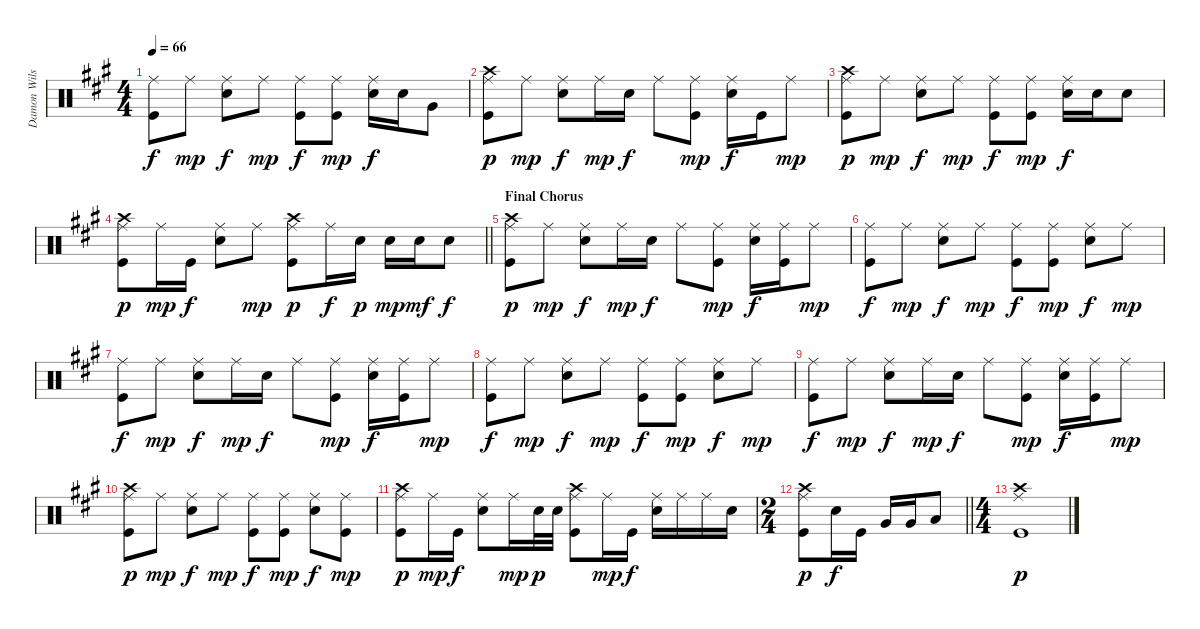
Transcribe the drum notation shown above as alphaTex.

\track ("Damon Wilson" "Damon Wils") {instrument percussion}
\staff {score}
\articulation defaults
\ts (4 4)
\tempo 66
\clef neutral
\ks f#minor
("Ride (middle)" "Kick (hit)").8{dy f} "Ride (middle)".8{dy mp} ("Ride (middle)" "Electric Snare (hit)").8{dy f} "Ride (middle)".8{dy mp} ("Ride (middle)" "Kick (hit)").8{dy f} ("Ride (middle)" "Kick (hit)").8{dy mp} ("Ride (middle)" "Electric Snare (hit)").16{dy f} "Electric Snare (hit)".16 "Very Low Tom (hit)".8 |
("Ride (middle)" "Crash high (hit)" "Kick (hit)").8{dy p} "Ride (middle)".8{dy mp} ("Ride (middle)" "Electric Snare (hit)").8{dy f} "Ride (middle)".16{dy mp} "Electric Snare (hit)".16{dy f} "Ride (middle)".8 ("Ride (middle)" "Kick (hit)").8{dy mp} ("Ride (middle)" "Electric Snare (hit)").16{dy f} "Kick (hit)".16 "Ride (middle)".8{dy mp} |
("Ride (middle)" "Crash high (hit)" "Kick (hit)").8{dy p} "Ride (middle)".8{dy mp} ("Ride (middle)" "Electric Snare (hit)").8{dy f} "Ride (middle)".8{dy mp} ("Ride (middle)" "Kick (hit)").8{dy f} ("Ride (middle)" "Kick (hit)").8{dy mp} ("Ride (middle)" "Electric Snare (hit)").16{dy f} "Electric Snare (hit)".16 "Electric Snare (hit)".8 |
\barLineRight lightlight
("Ride (middle)" "Crash high (hit)" "Kick (hit)").8{dy p} "Ride (middle)".16{dy mp} "Kick (hit)".16{dy f} ("Ride (middle)" "Electric Snare (hit)").8 "Ride (middle)".8{dy mp} ("Ride (middle)" "Crash high (hit)" "Kick (hit)").8{dy p} "Ride (middle)".16{dy f} "Electric Snare (hit)".16{dy p} "Electric Snare (hit)".16{dy mp} "Electric Snare (hit)".16{dy mf} "Electric Snare (hit)".8{dy f} |
\section ("" "Final Chorus")
("Ride (middle)" "Crash high (hit)" "Kick (hit)").8{dy p} "Ride (middle)".8{dy mp} ("Ride (middle)" "Electric Snare (hit)").8{dy f} "Ride (middle)".16{dy mp} "Electric Snare (hit)".16{dy f} "Ride (middle)".8 ("Ride (middle)" "Kick (hit)").8{dy mp} ("Ride (middle)" "Electric Snare (hit)").16{dy f} ("Ride (middle)" "Kick (hit)").16 "Ride (middle)".8{dy mp} |
("Ride (middle)" "Kick (hit)").8{dy f} "Ride (middle)".8{dy mp} ("Ride (middle)" "Electric Snare (hit)").8{dy f} "Ride (middle)".8{dy mp} ("Ride (middle)" "Kick (hit)").8{dy f} ("Ride (middle)" "Kick (hit)").8{dy mp} ("Ride (middle)" "Electric Snare (hit)").8{dy f} "Ride (middle)".8{dy mp} |
("Ride (middle)" "Kick (hit)").8{dy f} "Ride (middle)".8{dy mp} ("Ride (middle)" "Electric Snare (hit)").8{dy f} "Ride (middle)".16{dy mp} "Electric Snare (hit)".16{dy f} "Ride (middle)".8 ("Ride (middle)" "Kick (hit)").8{dy mp} ("Ride (middle)" "Electric Snare (hit)").16{dy f} ("Ride (middle)" "Kick (hit)").16 "Ride (middle)".8{dy mp} |
("Ride (middle)" "Kick (hit)").8{dy f} "Ride (middle)".8{dy mp} ("Ride (middle)" "Electric Snare (hit)").8{dy f} "Ride (middle)".8{dy mp} ("Ride (middle)" "Kick (hit)").8{dy f} ("Ride (middle)" "Kick (hit)").8{dy mp} ("Ride (middle)" "Electric Snare (hit)").8{dy f} "Ride (middle)".8{dy mp} |
("Ride (middle)" "Kick (hit)").8{dy f} "Ride (middle)".8{dy mp} ("Ride (middle)" "Electric Snare (hit)").8{dy f} "Ride (middle)".16{dy mp} "Electric Snare (hit)".16{dy f} "Ride (middle)".8 ("Ride (middle)" "Kick (hit)").8{dy mp} ("Ride (middle)" "Electric Snare (hit)").16{dy f} ("Ride (middle)" "Kick (hit)").16 "Ride (middle)".8{dy mp} |
("Ride (middle)" "Crash high (hit)" "Kick (hit)").8{dy p} "Ride (middle)".8{dy mp} ("Ride (middle)" "Electric Snare (hit)").8{dy f} "Ride (middle)".8{dy mp} ("Ride (middle)" "Kick (hit)").8{dy f} ("Ride (middle)" "Kick (hit)").8{dy mp} ("Ride (middle)" "Electric Snare (hit)").8{dy f} ("Ride (middle)" "Kick (hit)").8{dy mp} |
("Ride (middle)" "Crash high (hit)" "Kick (hit)").8{dy p} "Ride (middle)".16{dy mp} "Kick (hit)".16{dy f} ("Ride (middle)" "Electric Snare (hit)").8 "Ride (middle)".16{dy mp} "Electric Snare (hit)".32{dy p} "Electric Snare (hit)".32 ("Ride (middle)" "Crash high (hit)" "Kick (hit)").8 "Ride (middle)".16{dy mp} "Kick (hit)".16{dy f} ("Ride (middle)" "Electric Snare (hit)").16 "Ride (middle)".16 "Ride (middle)".16 "Electric Snare (hit)".16 |
\ts (2 4)
\barLineRight lightlight
("Ride (middle)" "Crash high (hit)" "Kick (hit)").8{dy p} "Electric Snare (hit)".16{dy f} "Kick (hit)".16 "Very Low Tom (hit)".16 "Very Low Tom (hit)".16 "Low Floor Tom (hit)".8 |
\ts (4 4)
("Ride (middle)" "Crash high (hit)" "Kick (hit)").1{dy p}
